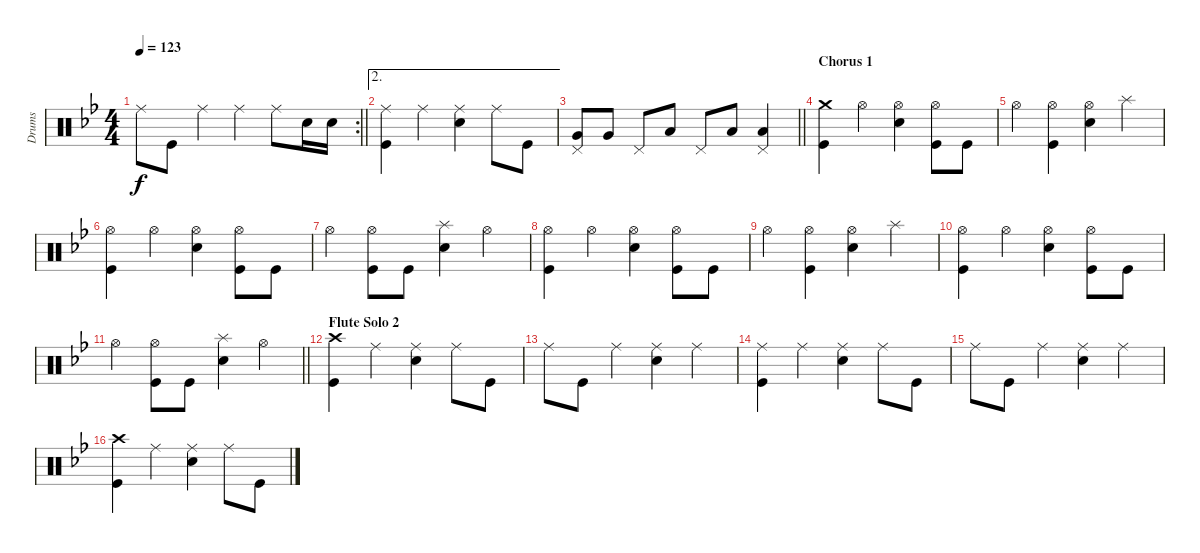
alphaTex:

\track ("Drums" "Drums") {instrument percussion}
\staff {score}
\articulation defaults
\rc 2
\ts (4 4)
\tempo 123
\clef neutral
\barLineRight lightlight
\ks bb "Ride (middle)".8{dy f} "Kick (hit)".8 "Ride (middle)".4 "Ride (middle)".4 "Ride (middle)".8 "Snare (hit) 2".16 "Snare (hit) 2".16
|
\ae 2
("Ride (middle)" "Kick (hit)").4 "Ride (middle)".4 ("Ride (middle)" "Snare (hit) 2").4 "Ride (middle)".8 "Kick (hit)".8 |
\barLineRight lightlight
("Pedal Hi-Hat (hit)" "Very Low Tom (hit)").8 "Very Low Tom (hit)".8 "Pedal Hi-Hat (hit)".8 "Low Tom (hit)".8 "Pedal Hi-Hat (hit)".8 "Low Floor Tom (hit)".8 ("Pedal Hi-Hat (hit)" "Low Floor Tom (hit)").4 |
\section ("" "Chorus 1")
("Crash medium (hit)" "Kick (hit)").4 "Hi-Hat (open)".4 ("Hi-Hat (open)" "Snare (hit) 2").4 ("Hi-Hat (open)" "Kick (hit)").8 "Kick (hit)".8 |
"Hi-Hat (open)".4 ("Hi-Hat (open)" "Kick (hit)").4 ("Hi-Hat (open)" "Snare (hit) 2").4 "Splash (hit)".4 |
("Hi-Hat (open)" "Kick (hit)").4 "Hi-Hat (open)".4 ("Hi-Hat (open)" "Snare (hit) 2").4 ("Hi-Hat (open)" "Kick (hit)").8 "Kick (hit)".8 |
"Hi-Hat (open)".4 ("Hi-Hat (open)" "Kick (hit)").8 "Kick (hit)".8 ("Splash (hit)" "Snare (hit) 2").4 "Hi-Hat (open)".4 |
("Hi-Hat (open)" "Kick (hit)").4 "Hi-Hat (open)".4 ("Hi-Hat (open)" "Snare (hit) 2").4 ("Hi-Hat (open)" "Kick (hit)").8 "Kick (hit)".8 |
"Hi-Hat (open)".4 ("Hi-Hat (open)" "Kick (hit)").4 ("Hi-Hat (open)" "Snare (hit) 2").4 "Splash (hit)".4 |
("Hi-Hat (open)" "Kick (hit)").4 "Hi-Hat (open)".4 ("Hi-Hat (open)" "Snare (hit) 2").4 ("Hi-Hat (open)" "Kick (hit)").8 "Kick (hit)".8 |
\barLineRight lightlight "Hi-Hat (open)".4
("Hi-Hat (open)" "Kick (hit)").8 "Kick (hit)".8 ("Splash (hit)" "Snare (hit) 2").4 "Hi-Hat (open)".4 |
\section ("" "Flute Solo 2")
("Crash high (hit)" "Kick (hit)").4 "Ride (middle)".4 ("Ride (middle)" "Snare (hit) 2").4 "Ride (middle)".8 "Kick (hit)".8 |
"Ride (middle)".8 "Kick (hit)".8 "Ride (middle)".4 ("Ride (middle)" "Snare (hit) 2").4 "Ride (middle)".4 |
("Ride (middle)" "Kick (hit)").4 "Ride (middle)".4 ("Ride (middle)" "Snare (hit) 2").4 "Ride (middle)".8 "Kick (hit)".8 |
"Ride (middle)".8 "Kick (hit)".8 "Ride (middle)".4 ("Ride (middle)" "Snare (hit) 2").4 "Ride (middle)".4 |
("Crash high (hit)" "Kick (hit)").4 "Ride (middle)".4 ("Ride (middle)" "Snare (hit) 2").4 "Ride (middle)".8 "Kick (hit)".8
